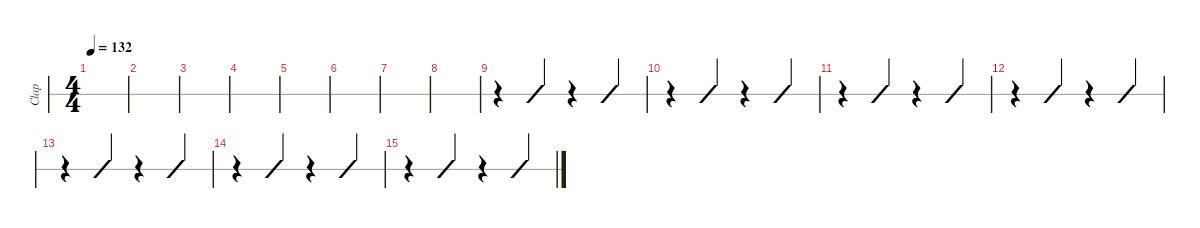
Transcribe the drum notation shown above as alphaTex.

\defaultSystemsLayout 4
\hideDynamics
\bracketExtendMode nobrackets
\otherSystemsTrackNameOrientation horizontal
\track ("Hand Clap" "Clap") {instrument percussion}
\staff {slash}
\articulation defaults
\ts (4 4)
\tempo 132
\clef neutral
\ks eb
|
|
|
|
|
|
|
|
\ks d
r.4 "Kick (hit)".4 r.4 "Kick (hit)".4 |
r.4 "Kick (hit)".4 r.4 "Kick (hit)".4 |
r.4 "Kick (hit)".4 r.4 "Kick (hit)".4 |
r.4 "Kick (hit)".4 r.4 "Kick (hit)".4 |
r.4 "Kick (hit)".4 r.4 "Kick (hit)".4 |
r.4 "Kick (hit)".4 r.4 "Kick (hit)".4 |
r.4 "Kick (hit)".4 r.4 "Kick (hit)".4
